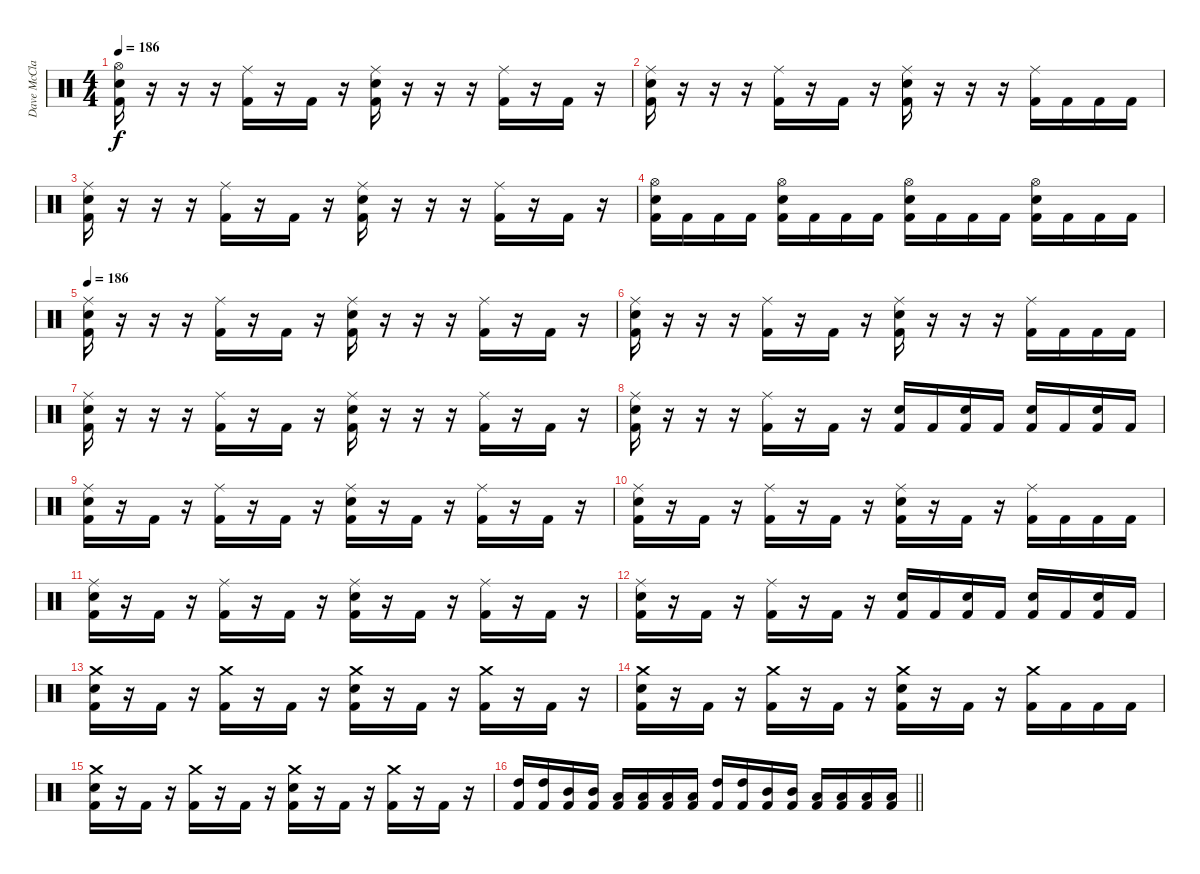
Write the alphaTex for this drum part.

\track ("Dave McClain" "Dave McCla") {instrument percussion}
\staff {score}
\articulation defaults
\ts (4 4)
\tempo 186
\clef neutral
\ks c
("Hi-Hat (open)" "Snare (hit) 2" "Kick (hit) 2").16{dy f} r.16 r.16 r.16 ("Ride (middle)" "Kick (hit) 2").16 r.16 "Kick (hit) 2".16 r.16 ("Ride (middle)" "Snare (hit) 2" "Kick (hit) 2").16 r.16 r.16 r.16 ("Ride (middle)" "Kick (hit) 2").16 r.16 "Kick (hit) 2".16 r.16 |
("Ride (middle)" "Snare (hit) 2" "Kick (hit) 2").16 r.16 r.16 r.16 ("Ride (middle)" "Kick (hit) 2").16 r.16 "Kick (hit) 2".16 r.16 ("Ride (middle)" "Snare (hit) 2" "Kick (hit) 2").16 r.16 r.16 r.16 ("Ride (middle)" "Kick (hit) 2").16 "Kick (hit) 2".16 "Kick (hit) 2".16 "Kick (hit) 2".16 |
("Ride (middle)" "Snare (hit) 2" "Kick (hit) 2").16 r.16 r.16 r.16 ("Ride (middle)" "Kick (hit) 2").16 r.16 "Kick (hit) 2".16 r.16 ("Ride (middle)" "Snare (hit) 2" "Kick (hit) 2").16 r.16 r.16 r.16 ("Ride (middle)" "Kick (hit) 2").16 r.16 "Kick (hit) 2".16 r.16 |
("Hi-Hat (open)" "Snare (hit) 2" "Kick (hit) 2").16 "Kick (hit) 2".16 "Kick (hit) 2".16 "Kick (hit) 2".16 ("Hi-Hat (open)" "Snare (hit) 2" "Kick (hit) 2").16 "Kick (hit) 2".16 "Kick (hit) 2".16 "Kick (hit) 2".16 ("Hi-Hat (open)" "Snare (hit) 2" "Kick (hit) 2").16 "Kick (hit) 2".16 "Kick (hit) 2".16 "Kick (hit) 2".16 ("Hi-Hat (open)" "Snare (hit) 2" "Kick (hit) 2").16 "Kick (hit) 2".16 "Kick (hit) 2".16 "Kick (hit) 2".16 |
\tempo 186
("Ride (middle)" "Snare (hit) 2" "Kick (hit) 2").16 r.16 r.16 r.16 ("Ride (middle)" "Kick (hit) 2").16 r.16 "Kick (hit) 2".16 r.16 ("Ride (middle)" "Snare (hit) 2" "Kick (hit) 2").16 r.16 r.16 r.16 ("Ride (middle)" "Kick (hit) 2").16 r.16 "Kick (hit) 2".16 r.16 |
("Ride (middle)" "Snare (hit) 2" "Kick (hit) 2").16 r.16 r.16 r.16 ("Ride (middle)" "Kick (hit) 2").16 r.16 "Kick (hit) 2".16 r.16 ("Ride (middle)" "Snare (hit) 2" "Kick (hit) 2").16 r.16 r.16 r.16 ("Ride (middle)" "Kick (hit) 2").16 "Kick (hit) 2".16 "Kick (hit) 2".16 "Kick (hit) 2".16 |
("Ride (middle)" "Snare (hit) 2" "Kick (hit) 2").16 r.16 r.16 r.16 ("Ride (middle)" "Kick (hit) 2").16 r.16 "Kick (hit) 2".16 r.16 ("Ride (middle)" "Snare (hit) 2" "Kick (hit) 2").16 r.16 r.16 r.16 ("Ride (middle)" "Kick (hit) 2").16 r.16 "Kick (hit) 2".16 r.16 |
("Ride (middle)" "Snare (hit) 2" "Kick (hit) 2").16 r.16 r.16 r.16 ("Ride (middle)" "Kick (hit) 2").16 r.16 "Kick (hit) 2".16 r.16 ("Snare (hit) 2" "Kick (hit) 2").16 "Kick (hit) 2".16 ("Snare (hit) 2" "Kick (hit) 2").16 "Kick (hit) 2".16 ("Snare (hit) 2" "Kick (hit) 2").16 "Kick (hit) 2".16 ("Snare (hit) 2" "Kick (hit) 2").16 "Kick (hit) 2".16 |
("Ride (middle)" "Snare (hit) 2" "Kick (hit) 2").16 r.16 "Kick (hit) 2".16 r.16 ("Ride (middle)" "Kick (hit) 2").16 r.16 "Kick (hit) 2".16 r.16 ("Ride (middle)" "Snare (hit) 2" "Kick (hit) 2").16 r.16 "Kick (hit) 2".16 r.16 ("Ride (middle)" "Kick (hit) 2").16 r.16 "Kick (hit) 2".16 r.16 |
("Ride (middle)" "Snare (hit) 2" "Kick (hit) 2").16 r.16 "Kick (hit) 2".16 r.16 ("Ride (middle)" "Kick (hit) 2").16 r.16 "Kick (hit) 2".16 r.16 ("Ride (middle)" "Snare (hit) 2" "Kick (hit) 2").16 r.16 "Kick (hit) 2".16 r.16 ("Ride (middle)" "Kick (hit) 2").16 "Kick (hit) 2".16 "Kick (hit) 2".16 "Kick (hit) 2".16 |
("Ride (middle)" "Snare (hit) 2" "Kick (hit) 2").16 r.16 "Kick (hit) 2".16 r.16 ("Ride (middle)" "Kick (hit) 2").16 r.16 "Kick (hit) 2".16 r.16 ("Ride (middle)" "Snare (hit) 2" "Kick (hit) 2").16 r.16 "Kick (hit) 2".16 r.16 ("Ride (middle)" "Kick (hit) 2").16 r.16 "Kick (hit) 2".16 r.16 |
("Ride (middle)" "Snare (hit) 2" "Kick (hit) 2").16 r.16 "Kick (hit) 2".16 r.16 ("Ride (middle)" "Kick (hit) 2").16 r.16 "Kick (hit) 2".16 r.16 ("Snare (hit) 2" "Kick (hit) 2").16 "Kick (hit) 2".16 ("Snare (hit) 2" "Kick (hit) 2").16 "Kick (hit) 2".16 ("Snare (hit) 2" "Kick (hit) 2").16 "Kick (hit) 2".16 ("Snare (hit) 2" "Kick (hit) 2").16 "Kick (hit) 2".16 |
("Crash medium (hit)" "Snare (hit) 2" "Kick (hit) 2").16 r.16 "Kick (hit) 2".16 r.16 ("Crash medium (hit)" "Kick (hit) 2").16 r.16 "Kick (hit) 2".16 r.16 ("Crash medium (hit)" "Snare (hit) 2" "Kick (hit) 2").16 r.16 "Kick (hit) 2".16 r.16 ("Crash medium (hit)" "Kick (hit) 2").16 r.16 "Kick (hit) 2".16 r.16 |
("Crash medium (hit)" "Snare (hit) 2" "Kick (hit) 2").16 r.16 "Kick (hit) 2".16 r.16 ("Crash medium (hit)" "Kick (hit) 2").16 r.16 "Kick (hit) 2".16 r.16 ("Crash medium (hit)" "Snare (hit) 2" "Kick (hit) 2").16 r.16 "Kick (hit) 2".16 r.16 ("Crash medium (hit)" "Kick (hit) 2").16 "Kick (hit) 2".16 "Kick (hit) 2".16 "Kick (hit) 2".16 |
("Crash medium (hit)" "Snare (hit) 2" "Kick (hit) 2").16 r.16 "Kick (hit) 2".16 r.16 ("Crash medium (hit)" "Kick (hit) 2").16 r.16 "Kick (hit) 2".16 r.16 ("Crash medium (hit)" "Snare (hit) 2" "Kick (hit) 2").16 r.16 "Kick (hit) 2".16 r.16 ("Crash medium (hit)" "Kick (hit) 2").16 r.16 "Kick (hit) 2".16 r.16 |
\barLineRight lightlight
("High Tom (hit)" "Kick (hit) 2").16 ("High Tom (hit)" "Kick (hit) 2").16 ("Mid Tom (hit)" "Kick (hit) 2").16 ("Mid Tom (hit)" "Kick (hit) 2").16 ("Low Tom (hit)" "Kick (hit) 2").16 ("Low Tom (hit)" "Kick (hit) 2").16 ("Low Tom (hit)" "Kick (hit) 2").16 ("Low Tom (hit)" "Kick (hit) 2").16 ("High Tom (hit)" "Kick (hit) 2").16 ("High Tom (hit)" "Kick (hit) 2").16 ("Mid Tom (hit)" "Kick (hit) 2").16 ("Mid Tom (hit)" "Kick (hit) 2").16 ("Low Tom (hit)" "Kick (hit) 2").16 ("Low Tom (hit)" "Kick (hit) 2").16 ("Low Tom (hit)" "Kick (hit) 2").16 ("Low Tom (hit)" "Kick (hit) 2").16
